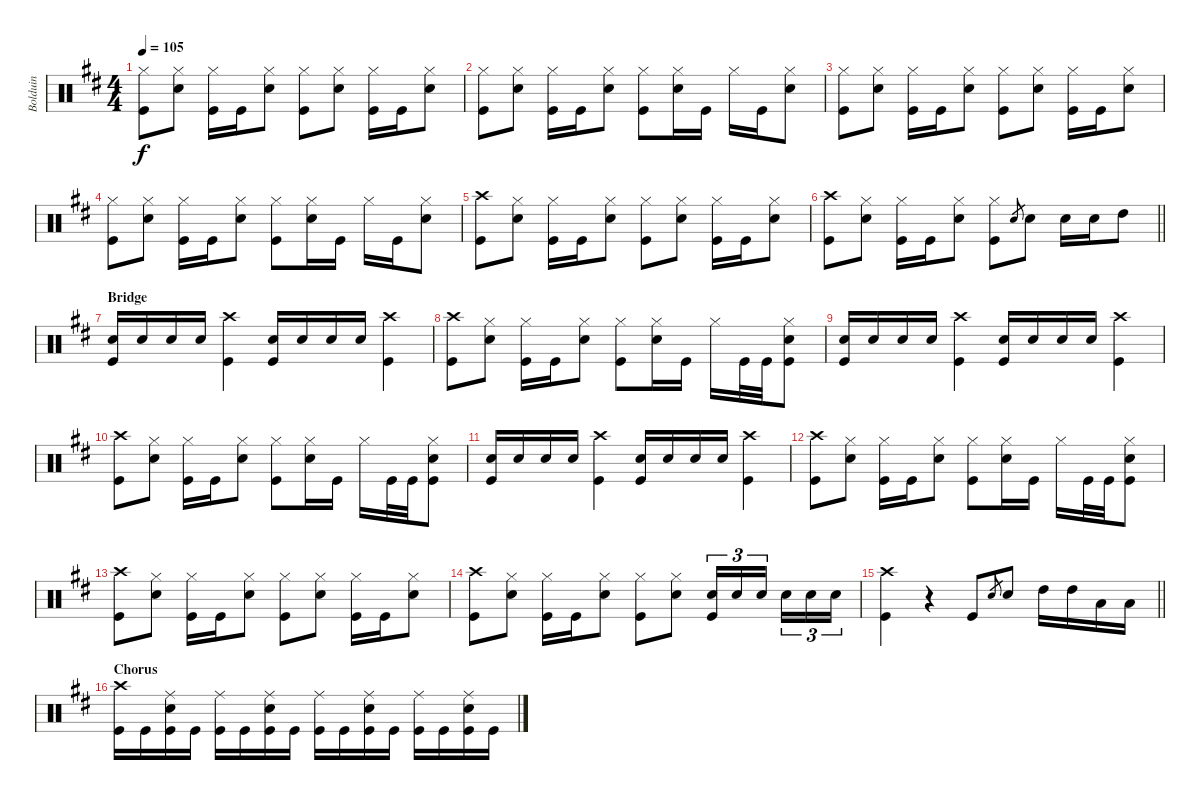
\track ("Bolduin" "Bolduin") {instrument percussion}
\staff {score}
\articulation defaults
\ts (4 4)
\tempo 105
\clef neutral
\ks bminor
("Hi-Hat (closed)" "Kick (hit)").8{dy f} ("Hi-Hat (closed)" "Snare (hit) 2").8 ("Kick (hit)" "Hi-Hat (closed)").16 "Kick (hit)".16 ("Snare (hit) 2" "Hi-Hat (closed)").8 ("Hi-Hat (closed)" "Kick (hit)").8 ("Hi-Hat (closed)" "Snare (hit) 2").8 ("Kick (hit)" "Hi-Hat (closed)").16 "Kick (hit)".16 ("Snare (hit) 2" "Hi-Hat (closed)").8 |
("Hi-Hat (closed)" "Kick (hit)").8 ("Hi-Hat (closed)" "Snare (hit) 2").8 ("Kick (hit)" "Hi-Hat (closed)").16 "Kick (hit)".16 ("Snare (hit) 2" "Hi-Hat (closed)").8 ("Kick (hit)" "Hi-Hat (closed)").8 ("Hi-Hat (closed)" "Snare (hit) 2").16 "Kick (hit)".16 "Hi-Hat (closed)".16 "Kick (hit)".16 ("Snare (hit) 2" "Hi-Hat (closed)").8 |
("Hi-Hat (closed)" "Kick (hit)").8 ("Hi-Hat (closed)" "Snare (hit) 2").8 ("Kick (hit)" "Hi-Hat (closed)").16 "Kick (hit)".16 ("Snare (hit) 2" "Hi-Hat (closed)").8 ("Hi-Hat (closed)" "Kick (hit)").8 ("Hi-Hat (closed)" "Snare (hit) 2").8 ("Kick (hit)" "Hi-Hat (closed)").16 "Kick (hit)".16 ("Snare (hit) 2" "Hi-Hat (closed)").8 |
("Hi-Hat (closed)" "Kick (hit)").8 ("Hi-Hat (closed)" "Snare (hit) 2").8 ("Kick (hit)" "Hi-Hat (closed)").16 "Kick (hit)".16 ("Snare (hit) 2" "Hi-Hat (closed)").8 ("Kick (hit)" "Hi-Hat (closed)").8 ("Hi-Hat (closed)" "Snare (hit) 2").16 "Kick (hit)".16 "Hi-Hat (closed)".16 "Kick (hit)".16 ("Snare (hit) 2" "Hi-Hat (closed)").8 |
("Crash high (hit)" "Kick (hit)").8 ("Hi-Hat (closed)" "Snare (hit) 2").8 ("Kick (hit)" "Hi-Hat (closed)").16 "Kick (hit)".16 ("Snare (hit) 2" "Hi-Hat (closed)").8 ("Kick (hit)" "Hi-Hat (closed)").8 ("Hi-Hat (closed)" "Snare (hit) 2").8 ("Hi-Hat (closed)" "Kick (hit)").16 "Kick (hit)".16 ("Snare (hit) 2" "Hi-Hat (closed)").8 |
\barLineRight lightlight
("Crash high (hit)" "Kick (hit)").8 ("Hi-Hat (closed)" "Snare (hit) 2").8 ("Kick (hit)" "Hi-Hat (closed)").16 "Kick (hit)".16 ("Snare (hit) 2" "Hi-Hat (closed)").8 ("Hi-Hat (closed)" "Kick (hit)").8 "Snare (hit) 2".8{gr} "Snare (hit) 2".8 "Snare (hit) 2".16 "Snare (hit) 2".16 "High Tom (hit)".8 |
\section ("" "Bridge")
("Kick (hit)" "Snare (hit) 2").16 "Snare (hit) 2".16 "Snare (hit) 2".16 "Snare (hit) 2".16 ("Kick (hit)" "Crash high (hit)").4 ("Kick (hit)" "Snare (hit) 2").16 "Snare (hit) 2".16 "Snare (hit) 2".16 "Snare (hit) 2".16 ("Kick (hit)" "Crash high (hit)").4 |
("Crash high (hit)" "Kick (hit)").8 ("Hi-Hat (closed)" "Snare (hit) 2").8 ("Kick (hit)" "Hi-Hat (closed)").16 "Kick (hit)".16 ("Snare (hit) 2" "Hi-Hat (closed)").8 ("Kick (hit)" "Hi-Hat (closed)").8 ("Hi-Hat (closed)" "Snare (hit) 2").16 "Kick (hit)".16 "Hi-Hat (closed)".16 "Kick (hit)".32 "Kick (hit)".32 ("Snare (hit) 2" "Hi-Hat (closed)" "Kick (hit)").8 |
("Kick (hit)" "Snare (hit) 2").16 "Snare (hit) 2".16 "Snare (hit) 2".16 "Snare (hit) 2".16 ("Kick (hit)" "Crash high (hit)").4 ("Kick (hit)" "Snare (hit) 2").16 "Snare (hit) 2".16 "Snare (hit) 2".16 "Snare (hit) 2".16 ("Kick (hit)" "Crash high (hit)").4 |
("Crash high (hit)" "Kick (hit)").8 ("Hi-Hat (closed)" "Snare (hit) 2").8 ("Kick (hit)" "Hi-Hat (closed)").16 "Kick (hit)".16 ("Snare (hit) 2" "Hi-Hat (closed)").8 ("Kick (hit)" "Hi-Hat (closed)").8 ("Hi-Hat (closed)" "Snare (hit) 2").16 "Kick (hit)".16 "Hi-Hat (closed)".16 "Kick (hit)".32 "Kick (hit)".32 ("Snare (hit) 2" "Hi-Hat (closed)" "Kick (hit)").8 |
("Kick (hit)" "Snare (hit) 2").16 "Snare (hit) 2".16 "Snare (hit) 2".16 "Snare (hit) 2".16 ("Kick (hit)" "Crash high (hit)").4 ("Kick (hit)" "Snare (hit) 2").16 "Snare (hit) 2".16 "Snare (hit) 2".16 "Snare (hit) 2".16 ("Kick (hit)" "Crash high (hit)").4 |
("Crash high (hit)" "Kick (hit)").8 ("Hi-Hat (closed)" "Snare (hit) 2").8 ("Kick (hit)" "Hi-Hat (closed)").16 "Kick (hit)".16 ("Snare (hit) 2" "Hi-Hat (closed)").8 ("Kick (hit)" "Hi-Hat (closed)").8 ("Hi-Hat (closed)" "Snare (hit) 2").16 "Kick (hit)".16 "Hi-Hat (closed)".16 "Kick (hit)".32 "Kick (hit)".32 ("Snare (hit) 2" "Hi-Hat (closed)" "Kick (hit)").8 |
("Crash high (hit)" "Kick (hit)").8 ("Hi-Hat (closed)" "Snare (hit) 2").8 ("Kick (hit)" "Hi-Hat (closed)").16 "Kick (hit)".16 ("Snare (hit) 2" "Hi-Hat (closed)").8 ("Hi-Hat (closed)" "Kick (hit)").8 ("Hi-Hat (closed)" "Snare (hit) 2").8 ("Kick (hit)" "Hi-Hat (closed)").16 "Kick (hit)".16 ("Snare (hit) 2" "Hi-Hat (closed)").8 |
("Crash high (hit)" "Kick (hit)").8 ("Hi-Hat (closed)" "Snare (hit) 2").8 ("Kick (hit)" "Hi-Hat (closed)").16 "Kick (hit)".16 ("Snare (hit) 2" "Hi-Hat (closed)").8 ("Kick (hit)" "Hi-Hat (closed)").8 ("Snare (hit) 2" "Hi-Hat (closed)").8 ("Snare (hit) 2" "Kick (hit)").16{tu (3 2)} "Snare (hit) 2".16{tu (3 2)} "Snare (hit) 2".16{tu (3 2) beam splitsecondary} "Snare (hit) 2".16{tu (3 2)} "Snare (hit) 2".16{tu (3 2)} "Snare (hit) 2".16{tu (3 2)} |
\barLineRight lightlight
("Kick (hit)" "Crash high (hit)").4 r.4 "Kick (hit)".8 "Snare (hit) 2".8{gr} "Snare (hit) 2".8 "High Tom (hit)".16 "High Tom (hit)".16 "Low Tom (hit)".16 "Low Tom (hit)".16 |
\section ("" "Chorus")
("Kick (hit)" "Crash high (hit)").16 "Kick (hit)".16 ("Kick (hit)" "Ride (middle)" "Snare (hit) 2").16 "Kick (hit)".16 ("Kick (hit)" "Ride (middle)").16 "Kick (hit)".16 ("Kick (hit)" "Ride (middle)" "Snare (hit) 2").16 "Kick (hit)".16 ("Kick (hit)" "Ride (middle)").16 "Kick (hit)".16 ("Kick (hit)" "Ride (middle)" "Snare (hit) 2").16 "Kick (hit)".16 ("Kick (hit)" "Ride (middle)").16 "Kick (hit)".16 ("Kick (hit)" "Ride (middle)" "Snare (hit) 2").16 "Kick (hit)".16
